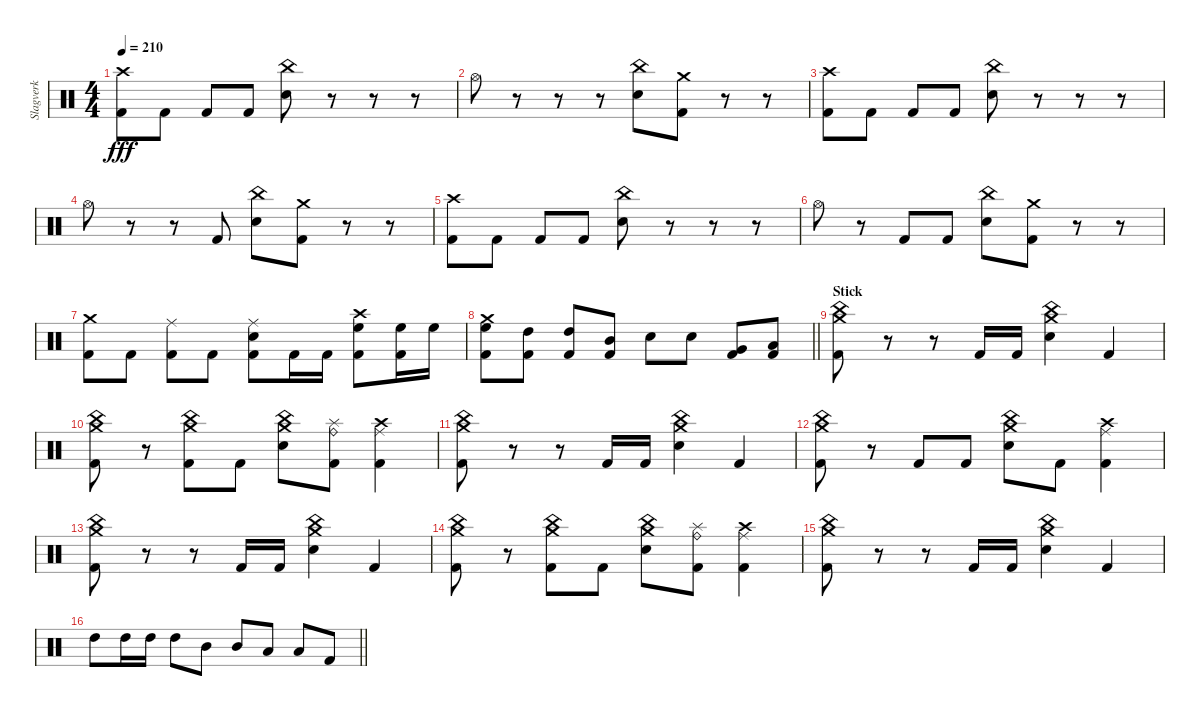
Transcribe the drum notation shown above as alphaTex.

\track ("Slagverk" "Slagverk") {instrument percussion}
\staff {score}
\articulation defaults
\ts (4 4)
\tempo 210
\clef neutral
\ks c
("Crash high (hit)" "Kick (hit) 2").8{dy fff} "Kick (hit) 2".8 "Kick (hit) 2".8 "Kick (hit) 2".8 ("China (hit)" "Electric Snare (hit)").8 r.8 r.8 r.8 |
"Hi-Hat (open)".8 r.8 r.8 r.8 ("China (hit)" "Electric Snare (hit)").8 ("Crash medium (hit)" "Kick (hit) 2").8 r.8 r.8 |
("Crash high (hit)" "Kick (hit) 2").8 "Kick (hit) 2".8 "Kick (hit) 2".8 "Kick (hit) 2".8 ("China (hit)" "Electric Snare (hit)").8 r.8 r.8 r.8 |
"Hi-Hat (open)".8 r.8 r.8 "Kick (hit) 2".8 ("China (hit)" "Electric Snare (hit)").8 ("Crash medium (hit)" "Kick (hit) 2").8 r.8 r.8 |
("Crash high (hit)" "Kick (hit) 2").8 "Kick (hit) 2".8 "Kick (hit) 2".8 "Kick (hit) 2".8 ("China (hit)" "Electric Snare (hit)").8 r.8 r.8 r.8 |
"Hi-Hat (open)".8 r.8 "Kick (hit) 2".8 "Kick (hit) 2".8 ("China (hit)" "Electric Snare (hit)").8 ("Crash medium (hit)" "Kick (hit) 2").8 r.8 r.8 |
("Crash medium (hit)" "Kick (hit) 2").8 "Kick (hit) 2".8 ("Ride (middle)" "Kick (hit) 2").8 "Kick (hit) 2".8 ("Ride (middle)" "Electric Snare (hit)" "Kick (hit) 2").8 "Kick (hit) 2".16 "Kick (hit) 2".16 ("Crash high (hit)" "High Floor Tom (hit)" "Kick (hit) 2").8 ("High Floor Tom (hit)" "Kick (hit) 2").16 "High Floor Tom (hit)".16 |
\barLineRight lightlight
("Crash medium (hit)" "High Floor Tom (hit)" "Kick (hit) 2").8 ("High Tom (hit)" "Kick (hit) 2").8 ("High Tom (hit)" "Kick (hit) 2").8 ("Mid Tom (hit)" "Kick (hit) 2").8 "Electric Snare (hit)".8 "Electric Snare (hit)".8 ("Very Low Tom (hit)" "Kick (hit) 2").8 ("Low Floor Tom (hit)" "Kick (hit) 2").8 |
\section ("" "Stick")
("China (hit)" "Crash medium (hit)" "Kick (hit) 2").8 r.8 r.8 "Kick (hit) 2".16 "Kick (hit) 2".16 ("China (hit)" "Crash medium (hit)" "Electric Snare (hit)").4 "Kick (hit) 2".4 |
("China (hit)" "Crash medium (hit)" "Kick (hit) 2").8 r.8 ("China (hit)" "Crash medium (hit)" "Kick (hit) 2").8 "Kick (hit) 2".8 ("China (hit)" "Crash medium (hit)" "Electric Snare (hit)").8 ("Splash (hit)" "Ride (bell)" "Kick (hit) 2").8 ("Crash high (hit)" "Ride (middle)" "Kick (hit) 2").4 |
("China (hit)" "Crash medium (hit)" "Kick (hit) 2").8 r.8 r.8 "Kick (hit) 2".16 "Kick (hit) 2".16 ("China (hit)" "Crash medium (hit)" "Electric Snare (hit)").4 "Kick (hit) 2".4 |
("China (hit)" "Crash medium (hit)" "Kick (hit) 2").8 r.8 "Kick (hit) 2".8 "Kick (hit) 2".8 ("China (hit)" "Crash medium (hit)" "Electric Snare (hit)").8 "Kick (hit) 2".8 ("Crash high (hit)" "Ride (middle)" "Kick (hit) 2").4 |
("China (hit)" "Crash medium (hit)" "Kick (hit) 2").8 r.8 r.8 "Kick (hit) 2".16 "Kick (hit) 2".16 ("China (hit)" "Crash medium (hit)" "Electric Snare (hit)").4 "Kick (hit) 2".4 |
("China (hit)" "Crash medium (hit)" "Kick (hit) 2").8 r.8 ("China (hit)" "Crash medium (hit)" "Kick (hit) 2").8 "Kick (hit) 2".8 ("China (hit)" "Crash medium (hit)" "Electric Snare (hit)").8 ("Splash (hit)" "Ride (bell)" "Kick (hit) 2").8 ("Crash high (hit)" "Ride (middle)" "Kick (hit) 2").4 |
("China (hit)" "Crash medium (hit)" "Kick (hit) 2").8 r.8 r.8 "Kick (hit) 2".16 "Kick (hit) 2".16 ("China (hit)" "Crash medium (hit)" "Electric Snare (hit)").4 "Kick (hit) 2".4 |
\barLineRight lightlight "High Tom (hit)".8 "High Tom (hit)".16 "High Tom (hit)".16 "High Tom (hit)".8 "Mid Tom (hit)".8 "Mid Tom (hit)".8 "Low Tom (hit)".8 "Low Floor Tom (hit)".8 "Kick (hit) 2".8
